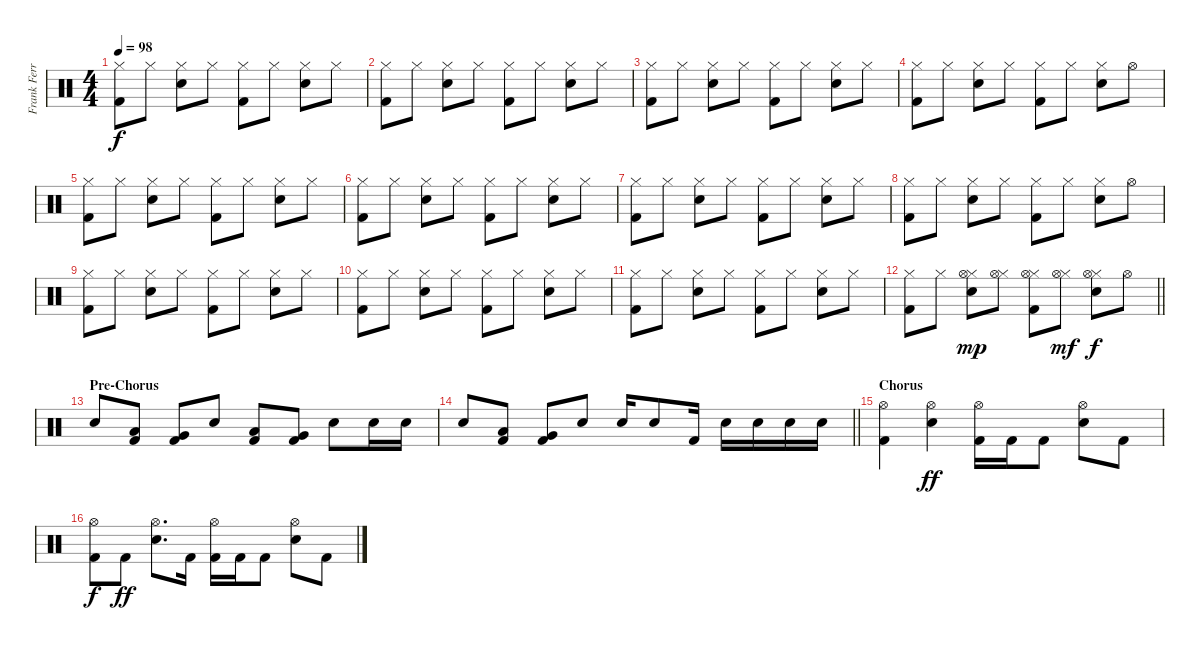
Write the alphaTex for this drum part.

\track ("Frank Ferrer" "Frank Ferr") {instrument percussion}
\staff {score}
\articulation defaults
\ts (4 4)
\tempo 98
\clef neutral
\ks c
("Hi-Hat (closed)" "Kick (hit) 2").8{dy f} "Hi-Hat (closed)".8 ("Hi-Hat (closed)" "Snare (hit) 2").8 "Hi-Hat (closed)".8 ("Hi-Hat (closed)" "Kick (hit) 2").8 "Hi-Hat (closed)".8 ("Hi-Hat (closed)" "Snare (hit) 2").8 "Hi-Hat (closed)".8 |
("Hi-Hat (closed)" "Kick (hit) 2").8 "Hi-Hat (closed)".8 ("Hi-Hat (closed)" "Snare (hit) 2").8 "Hi-Hat (closed)".8 ("Hi-Hat (closed)" "Kick (hit) 2").8 "Hi-Hat (closed)".8 ("Hi-Hat (closed)" "Snare (hit) 2").8 "Hi-Hat (closed)".8 |
("Hi-Hat (closed)" "Kick (hit) 2").8 "Hi-Hat (closed)".8 ("Hi-Hat (closed)" "Snare (hit) 2").8 "Hi-Hat (closed)".8 ("Hi-Hat (closed)" "Kick (hit) 2").8 "Hi-Hat (closed)".8 ("Hi-Hat (closed)" "Snare (hit) 2").8 "Hi-Hat (closed)".8 |
("Hi-Hat (closed)" "Kick (hit) 2").8 "Hi-Hat (closed)".8 ("Hi-Hat (closed)" "Snare (hit) 2").8 "Hi-Hat (closed)".8 ("Hi-Hat (closed)" "Kick (hit) 2").8 "Hi-Hat (closed)".8 ("Hi-Hat (closed)" "Snare (hit) 2").8 "Hi-Hat (open)".8 |
("Hi-Hat (closed)" "Kick (hit) 2").8 "Hi-Hat (closed)".8 ("Hi-Hat (closed)" "Snare (hit) 2").8 "Hi-Hat (closed)".8 ("Hi-Hat (closed)" "Kick (hit) 2").8 "Hi-Hat (closed)".8 ("Hi-Hat (closed)" "Snare (hit) 2").8 "Hi-Hat (closed)".8 |
("Hi-Hat (closed)" "Kick (hit) 2").8 "Hi-Hat (closed)".8 ("Hi-Hat (closed)" "Snare (hit) 2").8 "Hi-Hat (closed)".8 ("Hi-Hat (closed)" "Kick (hit) 2").8 "Hi-Hat (closed)".8 ("Hi-Hat (closed)" "Snare (hit) 2").8 "Hi-Hat (closed)".8 |
("Hi-Hat (closed)" "Kick (hit) 2").8 "Hi-Hat (closed)".8 ("Hi-Hat (closed)" "Snare (hit) 2").8 "Hi-Hat (closed)".8 ("Hi-Hat (closed)" "Kick (hit) 2").8 "Hi-Hat (closed)".8 ("Hi-Hat (closed)" "Snare (hit) 2").8 "Hi-Hat (closed)".8 |
("Hi-Hat (closed)" "Kick (hit) 2").8 "Hi-Hat (closed)".8 ("Hi-Hat (closed)" "Snare (hit) 2").8 "Hi-Hat (closed)".8 ("Hi-Hat (closed)" "Kick (hit) 2").8 "Hi-Hat (closed)".8 ("Hi-Hat (closed)" "Snare (hit) 2").8 "Hi-Hat (open)".8 |
("Hi-Hat (closed)" "Kick (hit) 2").8 "Hi-Hat (closed)".8 ("Hi-Hat (closed)" "Snare (hit) 2").8 "Hi-Hat (closed)".8 ("Hi-Hat (closed)" "Kick (hit) 2").8 "Hi-Hat (closed)".8 ("Hi-Hat (closed)" "Snare (hit) 2").8 "Hi-Hat (closed)".8 |
("Hi-Hat (closed)" "Kick (hit) 2").8 "Hi-Hat (closed)".8 ("Hi-Hat (closed)" "Snare (hit) 2").8 "Hi-Hat (closed)".8 ("Hi-Hat (closed)" "Kick (hit) 2").8 "Hi-Hat (closed)".8 ("Hi-Hat (closed)" "Snare (hit) 2").8 "Hi-Hat (closed)".8 |
("Hi-Hat (closed)" "Kick (hit) 2").8 "Hi-Hat (closed)".8 ("Hi-Hat (closed)" "Snare (hit) 2").8 "Hi-Hat (closed)".8 ("Hi-Hat (closed)" "Kick (hit) 2").8 "Hi-Hat (closed)".8 ("Hi-Hat (closed)" "Snare (hit) 2").8 "Hi-Hat (closed)".8 |
\barLineRight lightlight
("Hi-Hat (closed)" "Kick (hit) 2").8 "Hi-Hat (closed)".8 ("Hi-Hat (closed)" "Hi-Hat (open)" "Snare (hit) 2").8{dy mp} ("Hi-Hat (closed)" "Hi-Hat (open)").8 ("Hi-Hat (closed)" "Hi-Hat (open)" "Kick (hit) 2").8 ("Hi-Hat (closed)" "Hi-Hat (open)").8{dy mf} ("Hi-Hat (closed)" "Hi-Hat (open)" "Snare (hit) 2").8{dy f} "Hi-Hat (open)".8 |
\section ("" "Pre-Chorus")
"Snare (hit) 2".8 ("Low Tom (hit)" "Kick (hit) 2").8 ("Very Low Tom (hit)" "Kick (hit) 2").8 "Snare (hit) 2".8 ("Low Tom (hit)" "Kick (hit) 2").8 ("Very Low Tom (hit)" "Kick (hit) 2").8 "Snare (hit) 2".8 "Snare (hit) 2".16 "Snare (hit) 2".16 |
\barLineRight lightlight "Snare (hit) 2".8
("Low Tom (hit)" "Kick (hit) 2").8 ("Very Low Tom (hit)" "Kick (hit) 2").8 "Snare (hit) 2".8 "Snare (hit) 2".16 "Snare (hit) 2".8 "Kick (hit) 2".16 "Snare (hit) 2".16 "Snare (hit) 2".16 "Snare (hit) 2".16 "Snare (hit) 2".16 |
\section ("" "Chorus")
("Hi-Hat (open)" "Kick (hit) 2").4 ("Hi-Hat (open)" "Snare (hit) 2").4{dy ff} ("Hi-Hat (open)" "Kick (hit) 2").16 "Kick (hit) 2".16 "Kick (hit) 2".8 ("Hi-Hat (open)" "Snare (hit) 2").8 "Kick (hit) 2".8 |
("Hi-Hat (open)" "Kick (hit) 2").8{dy f} "Kick (hit) 2".8{dy ff} ("Hi-Hat (open)" "Snare (hit) 2").8{d} "Kick (hit) 2".16 ("Hi-Hat (open)" "Kick (hit) 2").16 "Kick (hit) 2".16 "Kick (hit) 2".8 ("Hi-Hat (open)" "Snare (hit) 2").8 "Kick (hit) 2".8
